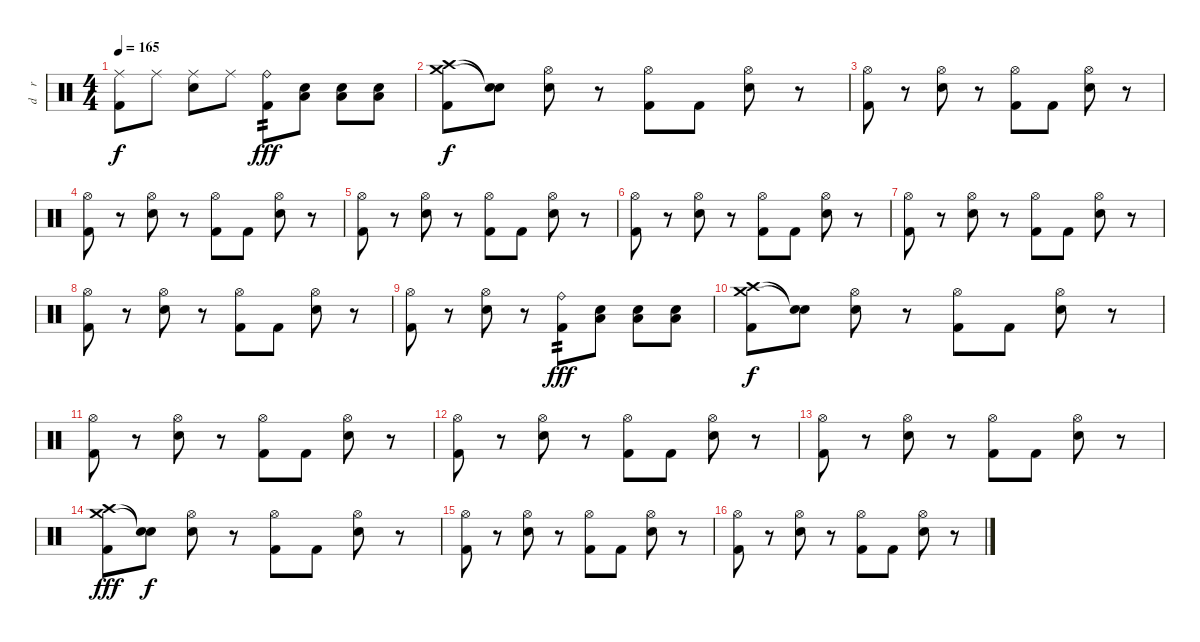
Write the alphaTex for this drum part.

\track ("d    r    u    m    s" "d    r    ") {instrument percussion}
\staff {score}
\articulation defaults
\ts (4 4)
\tempo 165
\clef neutral
\ks c
("Ride (middle)" "Kick (hit) 2").8{dy f} "Ride (middle)".8 ("Ride (middle)" "Electric Snare (hit)").8 "Ride (middle)".8 ("Ride (bell)" "Kick (hit) 2").8{tp 2 dy fff} ("Low Floor Tom (hit)" "Electric Snare (hit)").8 ("Low Floor Tom (hit)" "Electric Snare (hit)").8 ("Low Floor Tom (hit)" "Electric Snare (hit)").8 |
("Crash high (hit)" "Crash medium (hit)" "Kick (hit) 2").8{dy f} ("Snare (hit)"{t} "Snare (hit)"{t}).8 ("Hi-Hat (open)" "Electric Snare (hit)").8 r.8 ("Hi-Hat (open)" "Kick (hit) 2").8 "Kick (hit) 2".8 ("Hi-Hat (open)" "Electric Snare (hit)").8 r.8 |
("Hi-Hat (open)" "Kick (hit) 2").8 r.8 ("Hi-Hat (open)" "Electric Snare (hit)").8 r.8 ("Hi-Hat (open)" "Kick (hit) 2").8 "Kick (hit) 2".8 ("Hi-Hat (open)" "Electric Snare (hit)").8 r.8 |
("Hi-Hat (open)" "Kick (hit) 2").8 r.8 ("Hi-Hat (open)" "Electric Snare (hit)").8 r.8 ("Hi-Hat (open)" "Kick (hit) 2").8 "Kick (hit) 2".8 ("Hi-Hat (open)" "Electric Snare (hit)").8 r.8 |
("Hi-Hat (open)" "Kick (hit) 2").8 r.8 ("Hi-Hat (open)" "Electric Snare (hit)").8 r.8 ("Hi-Hat (open)" "Kick (hit) 2").8 "Kick (hit) 2".8 ("Hi-Hat (open)" "Electric Snare (hit)").8 r.8 |
("Hi-Hat (open)" "Kick (hit) 2").8 r.8 ("Hi-Hat (open)" "Electric Snare (hit)").8 r.8 ("Hi-Hat (open)" "Kick (hit) 2").8 "Kick (hit) 2".8 ("Hi-Hat (open)" "Electric Snare (hit)").8 r.8 |
("Hi-Hat (open)" "Kick (hit) 2").8 r.8 ("Hi-Hat (open)" "Electric Snare (hit)").8 r.8 ("Hi-Hat (open)" "Kick (hit) 2").8 "Kick (hit) 2".8 ("Hi-Hat (open)" "Electric Snare (hit)").8 r.8 |
("Hi-Hat (open)" "Kick (hit) 2").8 r.8 ("Hi-Hat (open)" "Electric Snare (hit)").8 r.8 ("Hi-Hat (open)" "Kick (hit) 2").8 "Kick (hit) 2".8 ("Hi-Hat (open)" "Electric Snare (hit)").8 r.8 |
("Hi-Hat (open)" "Kick (hit) 2").8 r.8 ("Hi-Hat (open)" "Electric Snare (hit)").8 r.8 ("Ride (bell)" "Kick (hit) 2").8{tp 2 dy fff} ("Low Floor Tom (hit)" "Electric Snare (hit)").8 ("Low Floor Tom (hit)" "Electric Snare (hit)").8 ("Low Floor Tom (hit)" "Electric Snare (hit)").8 |
("Crash high (hit)" "Crash medium (hit)" "Kick (hit) 2").8{dy f} ("Snare (hit)"{t} "Snare (hit)"{t}).8 ("Hi-Hat (open)" "Electric Snare (hit)").8 r.8 ("Hi-Hat (open)" "Kick (hit) 2").8 "Kick (hit) 2".8 ("Hi-Hat (open)" "Electric Snare (hit)").8 r.8 |
("Hi-Hat (open)" "Kick (hit) 2").8 r.8 ("Hi-Hat (open)" "Electric Snare (hit)").8 r.8 ("Hi-Hat (open)" "Kick (hit) 2").8 "Kick (hit) 2".8 ("Hi-Hat (open)" "Electric Snare (hit)").8 r.8 |
("Hi-Hat (open)" "Kick (hit) 2").8 r.8 ("Hi-Hat (open)" "Electric Snare (hit)").8 r.8 ("Hi-Hat (open)" "Kick (hit) 2").8 "Kick (hit) 2".8 ("Hi-Hat (open)" "Electric Snare (hit)").8 r.8 |
("Hi-Hat (open)" "Kick (hit) 2").8 r.8 ("Hi-Hat (open)" "Electric Snare (hit)").8 r.8 ("Hi-Hat (open)" "Kick (hit) 2").8 "Kick (hit) 2".8 ("Hi-Hat (open)" "Electric Snare (hit)").8 r.8 |
("Crash high (hit)" "Crash medium (hit)" "Kick (hit) 2").8{dy fff} ("Snare (hit)"{t} "Snare (hit)"{t}).8{dy f} ("Hi-Hat (open)" "Electric Snare (hit)").8 r.8 ("Hi-Hat (open)" "Kick (hit) 2").8 "Kick (hit) 2".8 ("Hi-Hat (open)" "Electric Snare (hit)").8 r.8 |
("Hi-Hat (open)" "Kick (hit) 2").8 r.8 ("Hi-Hat (open)" "Electric Snare (hit)").8 r.8 ("Hi-Hat (open)" "Kick (hit) 2").8 "Kick (hit) 2".8 ("Hi-Hat (open)" "Electric Snare (hit)").8 r.8 |
("Hi-Hat (open)" "Kick (hit) 2").8 r.8 ("Hi-Hat (open)" "Electric Snare (hit)").8 r.8 ("Hi-Hat (open)" "Kick (hit) 2").8 "Kick (hit) 2".8 ("Hi-Hat (open)" "Electric Snare (hit)").8 r.8
